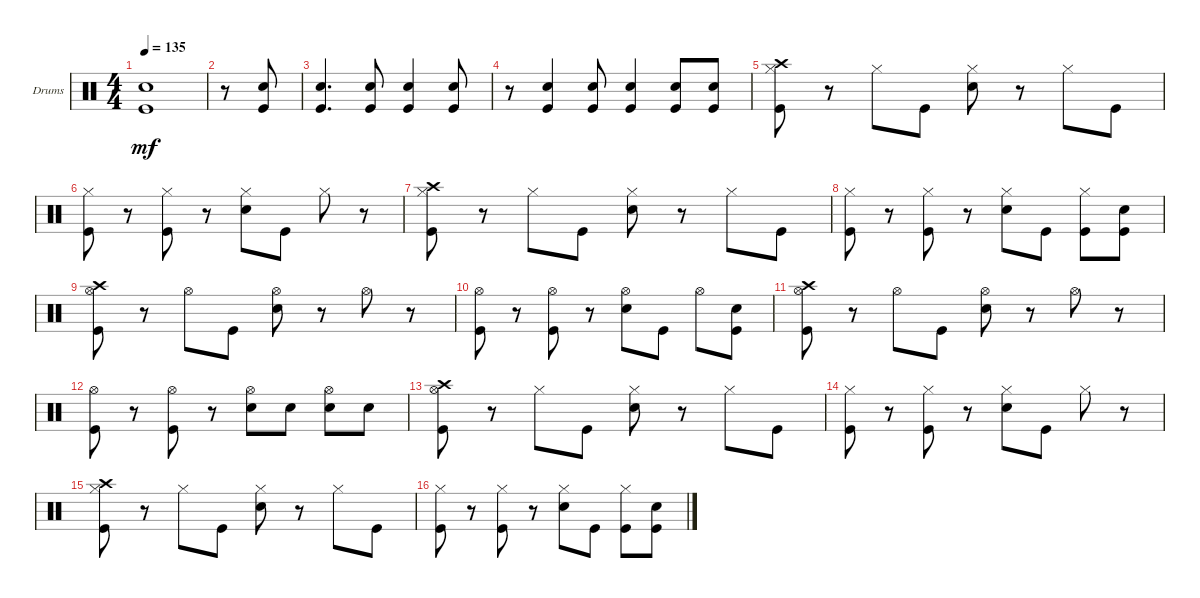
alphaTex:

\defaultSystemsLayout 4
\bracketExtendMode groupsimilarinstruments
\firstSystemTrackNameOrientation horizontal
\otherSystemsTrackNameOrientation horizontal
\track ("Drumkit" "Drums") {instrument percussion}
\staff {score}
\articulation defaults
\ts (4 4)
\tempo 135
\clef neutral
\scale
0.474178
\ks c
("Kick (hit)" "Snare (hit) 2").1{dy mf} |
\scale
0.262911 r.8 ("Kick (hit)" "Snare (hit) 2").8 |
\scale
0.262911 ("Kick (hit)" "Snare (hit) 2").4{d} ("Snare (hit) 2" "Kick (hit)").8 ("Snare (hit) 2" "Kick (hit)").4 ("Snare (hit) 2" "Kick (hit)").8 |
\scale
0.333333 r.8 ("Kick (hit)" "Snare (hit) 2").4 ("Snare (hit) 2" "Kick (hit)").8 ("Snare (hit) 2" "Kick (hit)").4 ("Snare (hit) 2" "Kick (hit)").8 ("Snare (hit) 2" "Kick (hit)").8 |
\scale
0.333333 ("Kick (hit)" "Crash high (hit)" "Hi-Hat (closed)").8 r.8 "Hi-Hat (closed)".8 "Kick (hit)".8 ("Snare (hit) 2" "Hi-Hat (closed)").8 r.8 "Hi-Hat (closed)".8 "Kick (hit)".8 |
\scale
0.333333 ("Kick (hit)" "Hi-Hat (closed)").8 r.8 ("Kick (hit)" "Hi-Hat (closed)").8 r.8 ("Snare (hit) 2" "Hi-Hat (closed)").8 "Kick (hit)".8 "Hi-Hat (closed)".8 r.8 |
\scale
0.333333 ("Kick (hit)" "Crash high (hit)" "Hi-Hat (closed)").8 r.8 "Hi-Hat (closed)".8 "Kick (hit)".8 ("Snare (hit) 2" "Hi-Hat (closed)").8 r.8 "Hi-Hat (closed)".8 "Kick (hit)".8 |
\scale
0.333333 ("Kick (hit)" "Hi-Hat (closed)").8 r.8 ("Kick (hit)" "Hi-Hat (closed)").8 r.8 ("Hi-Hat (closed)" "Snare (hit) 2").8 "Kick (hit)".8 ("Hi-Hat (closed)" "Kick (hit)").8 ("Kick (hit)" "Snare (hit) 2").8 |
\scale
0.333333 ("Hi-Hat (open)" "Crash high (hit)" "Kick (hit)").8 r.8 "Hi-Hat (open)".8 "Kick (hit)".8 ("Hi-Hat (open)" "Snare (hit) 2").8 r.8 "Hi-Hat (open)".8 r.8 |
\scale
0.333333 ("Hi-Hat (open)" "Kick (hit)").8 r.8 ("Hi-Hat (open)" "Kick (hit)").8 r.8 ("Hi-Hat (open)" "Snare (hit) 2").8 "Kick (hit)".8 "Hi-Hat (open)".8 ("Kick (hit)" "Snare (hit) 2").8 |
\scale
0.333333 ("Hi-Hat (open)" "Crash high (hit)" "Kick (hit)").8 r.8 "Hi-Hat (open)".8 "Kick (hit)".8 ("Hi-Hat (open)" "Snare (hit) 2").8 r.8 "Hi-Hat (open)".8 r.8 |
\scale
0.333333 ("Hi-Hat (open)" "Kick (hit)").8 r.8 ("Hi-Hat (open)" "Kick (hit)").8 r.8 ("Hi-Hat (open)" "Snare (hit) 2").8 "Snare (hit) 2".8 ("Snare (hit) 2" "Hi-Hat (open)").8 "Snare (hit) 2".8 |
\scale
0.333333 ("Kick (hit)" "Crash high (hit)" "Hi-Hat (open)").8 r.8 "Hi-Hat (closed)".8 "Kick (hit)".8 ("Snare (hit) 2" "Hi-Hat (closed)").8 r.8 "Hi-Hat (closed)".8 "Kick (hit)".8 |
\scale
0.333333 ("Kick (hit)" "Hi-Hat (closed)").8 r.8 ("Kick (hit)" "Hi-Hat (closed)").8 r.8 ("Snare (hit) 2" "Hi-Hat (closed)").8 "Kick (hit)".8 "Hi-Hat (closed)".8 r.8 |
\scale
0.333333 ("Kick (hit)" "Crash high (hit)" "Hi-Hat (closed)").8 r.8 "Hi-Hat (closed)".8 "Kick (hit)".8 ("Snare (hit) 2" "Hi-Hat (closed)").8 r.8 "Hi-Hat (closed)".8 "Kick (hit)".8 |
\scale
0.333333 ("Kick (hit)" "Hi-Hat (closed)").8 r.8 ("Kick (hit)" "Hi-Hat (closed)").8 r.8 ("Hi-Hat (closed)" "Snare (hit) 2").8 "Kick (hit)".8 ("Hi-Hat (closed)" "Kick (hit)").8 ("Kick (hit)" "Snare (hit) 2").8
